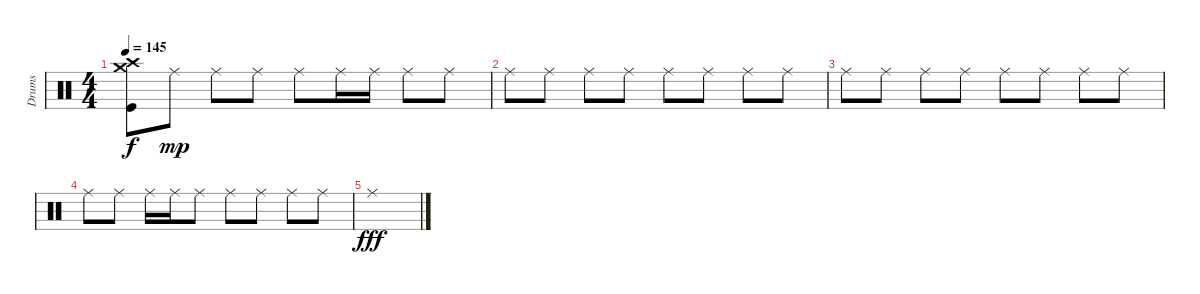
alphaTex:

\track ("Drums" "Drums") {instrument percussion}
\staff {score}
\articulation defaults
\ts (4 4)
\tempo 145
\clef neutral
\ks c
("Crash medium (hit)" "Crash high (hit)" "Kick (hit)").8{dy f} "Ride (middle)".8{dy mp} "Ride (middle)".8 "Ride (middle)".8 "Ride (middle)".8 "Ride (middle)".16 "Ride (middle)".16 "Ride (middle)".8 "Ride (middle)".8 |
"Ride (middle)".8 "Ride (middle)".8 "Ride (middle)".8 "Ride (middle)".8 "Ride (middle)".8 "Ride (middle)".8 "Ride (middle)".8 "Ride (middle)".8 |
"Ride (middle)".8 "Ride (middle)".8 "Ride (middle)".8 "Ride (middle)".8 "Ride (middle)".8 "Ride (middle)".8 "Ride (middle)".8 "Ride (middle)".8 |
"Ride (middle)".8 "Ride (middle)".8 "Ride (middle)".16 "Ride (middle)".16 "Ride (middle)".8 "Ride (middle)".8 "Ride (middle)".8 "Ride (middle)".8 "Ride (middle)".8 |
"Ride (middle)".1{dy fff}
